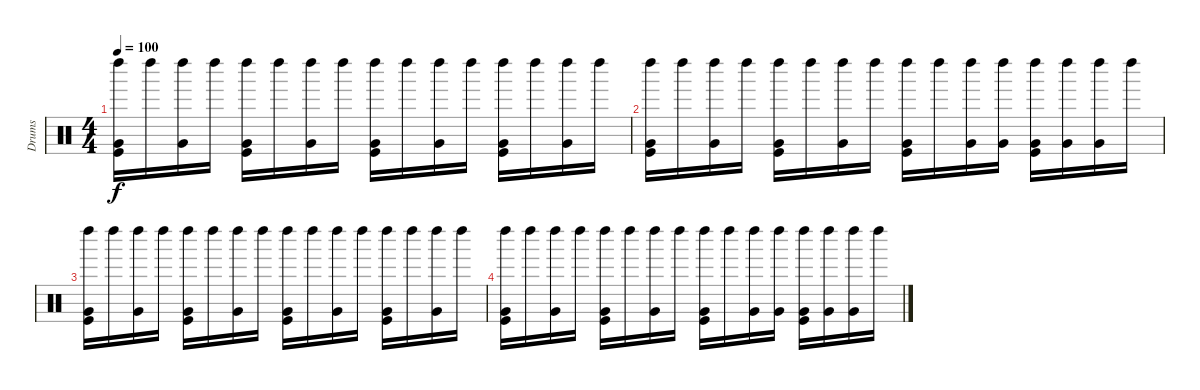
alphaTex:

\track ("Drums" "Drums") {instrument percussion}
\staff {score}
\articulation defaults
\ts (4 4)
\tempo 100
\clef neutral
\ks c
("Very Low Tom (hit)" "Kick (hit)" "Left Maraca (hit)").16{dy f volume 2} "Left Maraca (hit)".16 ("Very Low Tom (hit)" "Left Maraca (hit)").16 "Left Maraca (hit)".16 ("Kick (hit)" "Very Low Tom (hit)" "Left Maraca (hit)").16 "Left Maraca (hit)".16 ("Very Low Tom (hit)" "Left Maraca (hit)").16 "Left Maraca (hit)".16 ("Kick (hit)" "Very Low Tom (hit)" "Left Maraca (hit)").16 "Left Maraca (hit)".16 ("Very Low Tom (hit)" "Left Maraca (hit)").16 "Left Maraca (hit)".16 ("Kick (hit)" "Very Low Tom (hit)" "Left Maraca (hit)").16 "Left Maraca (hit)".16 ("Very Low Tom (hit)" "Left Maraca (hit)").16 "Left Maraca (hit)".16 |
("Very Low Tom (hit)" "Kick (hit)" "Left Maraca (hit)").16 "Left Maraca (hit)".16 ("Very Low Tom (hit)" "Left Maraca (hit)").16 "Left Maraca (hit)".16 ("Kick (hit)" "Very Low Tom (hit)" "Left Maraca (hit)").16 "Left Maraca (hit)".16 ("Very Low Tom (hit)" "Left Maraca (hit)").16 "Left Maraca (hit)".16 ("Very Low Tom (hit)" "Kick (hit)" "Left Maraca (hit)").16 "Left Maraca (hit)".16 ("Very Low Tom (hit)" "Left Maraca (hit)").16 ("Very Low Tom (hit)" "Left Maraca (hit)").16 ("Very Low Tom (hit)" "Kick (hit)" "Left Maraca (hit)").16 ("Very Low Tom (hit)" "Left Maraca (hit)").16 ("Very Low Tom (hit)" "Left Maraca (hit)").16 "Left Maraca (hit)".16 |
("Very Low Tom (hit)" "Kick (hit)" "Left Maraca (hit)").16{volume 1} "Left Maraca (hit)".16 ("Very Low Tom (hit)" "Left Maraca (hit)").16 "Left Maraca (hit)".16 ("Kick (hit)" "Very Low Tom (hit)" "Left Maraca (hit)").16 "Left Maraca (hit)".16 ("Very Low Tom (hit)" "Left Maraca (hit)").16 "Left Maraca (hit)".16 ("Kick (hit)" "Very Low Tom (hit)" "Left Maraca (hit)").16 "Left Maraca (hit)".16 ("Very Low Tom (hit)" "Left Maraca (hit)").16 "Left Maraca (hit)".16 ("Kick (hit)" "Very Low Tom (hit)" "Left Maraca (hit)").16 "Left Maraca (hit)".16 ("Very Low Tom (hit)" "Left Maraca (hit)").16 "Left Maraca (hit)".16 |
("Very Low Tom (hit)" "Kick (hit)" "Left Maraca (hit)").16 "Left Maraca (hit)".16 ("Very Low Tom (hit)" "Left Maraca (hit)").16 "Left Maraca (hit)".16 ("Kick (hit)" "Very Low Tom (hit)" "Left Maraca (hit)").16 "Left Maraca (hit)".16 ("Very Low Tom (hit)" "Left Maraca (hit)").16 "Left Maraca (hit)".16 ("Very Low Tom (hit)" "Kick (hit)" "Left Maraca (hit)").16 "Left Maraca (hit)".16 ("Very Low Tom (hit)" "Left Maraca (hit)").16 ("Very Low Tom (hit)" "Left Maraca (hit)").16 ("Very Low Tom (hit)" "Kick (hit)" "Left Maraca (hit)").16 ("Very Low Tom (hit)" "Left Maraca (hit)").16 ("Very Low Tom (hit)" "Left Maraca (hit)").16 "Left Maraca (hit)".16
